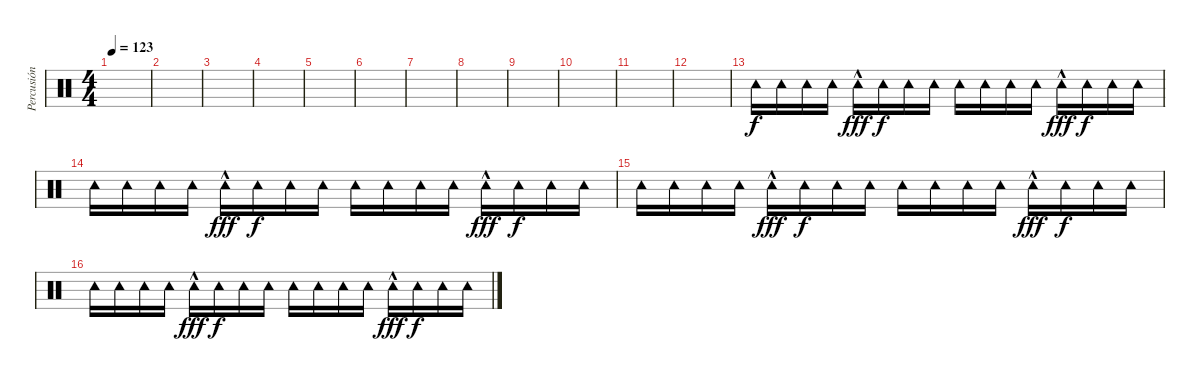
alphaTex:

\track ("Percusión" "Percusión") {instrument percussion}
\staff {score}
\articulation defaults
\ts (4 4)
\tempo 123
\clef neutral
\ks c
|
|
|
|
|
|
|
|
|
|
|
|
"Tambourine (hit)".16 "Tambourine (hit)".16 "Tambourine (hit)".16 "Tambourine (hit)".16 "Tambourine (hit)"{hac}.16{dy fff} "Tambourine (hit)".16{dy f} "Tambourine (hit)".16 "Tambourine (hit)".16 "Tambourine (hit)".16 "Tambourine (hit)".16 "Tambourine (hit)".16 "Tambourine (hit)".16 "Tambourine (hit)"{hac}.16{dy fff} "Tambourine (hit)".16{dy f} "Tambourine (hit)".16 "Tambourine (hit)".16 |
"Tambourine (hit)".16 "Tambourine (hit)".16 "Tambourine (hit)".16 "Tambourine (hit)".16 "Tambourine (hit)"{hac}.16{dy fff} "Tambourine (hit)".16{dy f} "Tambourine (hit)".16 "Tambourine (hit)".16 "Tambourine (hit)".16 "Tambourine (hit)".16 "Tambourine (hit)".16 "Tambourine (hit)".16 "Tambourine (hit)"{hac}.16{dy fff} "Tambourine (hit)".16{dy f} "Tambourine (hit)".16 "Tambourine (hit)".16 |
"Tambourine (hit)".16 "Tambourine (hit)".16 "Tambourine (hit)".16 "Tambourine (hit)".16 "Tambourine (hit)"{hac}.16{dy fff} "Tambourine (hit)".16{dy f} "Tambourine (hit)".16 "Tambourine (hit)".16 "Tambourine (hit)".16 "Tambourine (hit)".16 "Tambourine (hit)".16 "Tambourine (hit)".16 "Tambourine (hit)"{hac}.16{dy fff} "Tambourine (hit)".16{dy f} "Tambourine (hit)".16 "Tambourine (hit)".16 |
"Tambourine (hit)".16 "Tambourine (hit)".16 "Tambourine (hit)".16 "Tambourine (hit)".16 "Tambourine (hit)"{hac}.16{dy fff} "Tambourine (hit)".16{dy f} "Tambourine (hit)".16 "Tambourine (hit)".16 "Tambourine (hit)".16 "Tambourine (hit)".16 "Tambourine (hit)".16 "Tambourine (hit)".16 "Tambourine (hit)"{hac}.16{dy fff} "Tambourine (hit)".16{dy f} "Tambourine (hit)".16 "Tambourine (hit)".16
